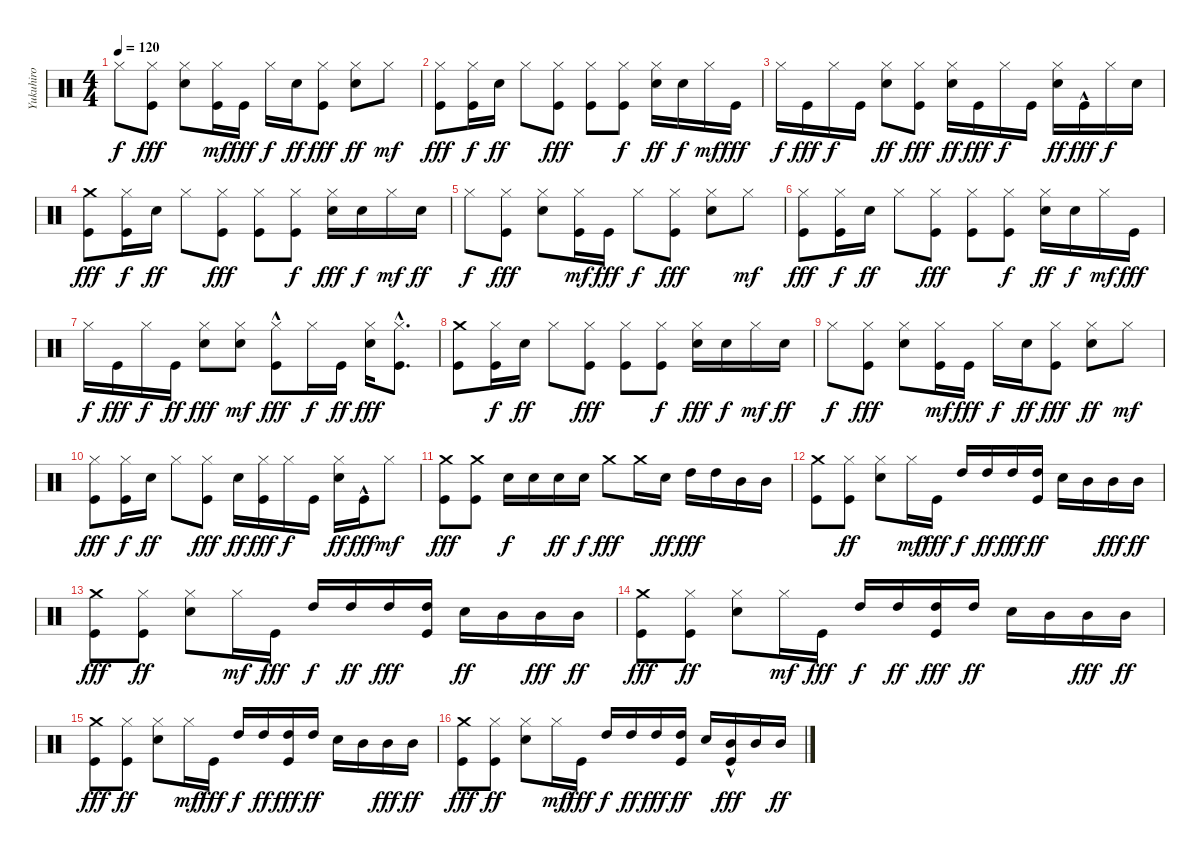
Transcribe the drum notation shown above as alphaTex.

\track ("Yukuhiro" "Yukuhiro") {instrument percussion}
\staff {score}
\articulation defaults
\ts (4 4)
\tempo 120
\clef neutral
\ks c "Hi-Hat (closed)".8{dy f}
("Hi-Hat (closed)" "Kick (hit)").8{dy fff} ("Electric Snare (hit)" "Hi-Hat (closed)").8 ("Kick (hit)" "Hi-Hat (closed)").16{dy mf} "Kick (hit)".16{dy fff} "Hi-Hat (closed)".16{dy f} "Electric Snare (hit)".16{dy ff} ("Hi-Hat (closed)" "Kick (hit)").8{dy fff} ("Hi-Hat (closed)" "Electric Snare (hit)").8{dy ff} "Hi-Hat (closed)".8{dy mf} |
("Hi-Hat (closed)" "Kick (hit)").8{dy fff} ("Kick (hit)" "Hi-Hat (closed)").16{dy f} "Electric Snare (hit)".16{dy ff} "Hi-Hat (closed)".8 ("Hi-Hat (closed)" "Kick (hit)").8{dy fff} ("Kick (hit)" "Hi-Hat (closed)").8 ("Hi-Hat (closed)" "Kick (hit)").8{dy f} ("Hi-Hat (closed)" "Electric Snare (hit)").16{dy ff} "Electric Snare (hit)".16{dy f} "Hi-Hat (closed)".16{dy mf} "Kick (hit)".16{dy fff} |
"Hi-Hat (closed)".16{dy f} "Kick (hit)".16{dy fff} "Hi-Hat (closed)".16{dy f} "Kick (hit)".16 ("Electric Snare (hit)" "Hi-Hat (closed)").8{dy ff} ("Kick (hit)" "Hi-Hat (closed)").8{dy fff} ("Hi-Hat (closed)" "Electric Snare (hit)").16{dy ff} "Kick (hit)".16{dy fff} "Hi-Hat (closed)".16{dy f} "Kick (hit)".16 ("Hi-Hat (closed)" "Electric Snare (hit)").16{dy ff} "Kick (hit)"{hac}.16{dy fff} "Hi-Hat (closed)".16{dy f} "Electric Snare (hit)".16 |
("Crash medium (hit)" "Kick (hit)").8{dy fff} ("Kick (hit)" "Hi-Hat (closed)").16{dy f} "Electric Snare (hit)".16{dy ff} "Hi-Hat (closed)".8 ("Kick (hit)" "Hi-Hat (closed)").8{dy fff} ("Hi-Hat (closed)" "Kick (hit)").8 ("Hi-Hat (closed)" "Kick (hit)").8{dy f} ("Electric Snare (hit)" "Hi-Hat (closed)").16{dy fff} "Electric Snare (hit)".16{dy f} "Hi-Hat (closed)".16{dy mf} "Electric Snare (hit)".16{dy ff} |
"Hi-Hat (closed)".8{dy f} ("Kick (hit)" "Hi-Hat (closed)").8{dy fff} ("Electric Snare (hit)" "Hi-Hat (closed)").8 ("Kick (hit)" "Hi-Hat (closed)").16{dy mf} "Kick (hit)".16{dy fff} "Hi-Hat (closed)".8{dy f} ("Hi-Hat (closed)" "Kick (hit)").8{dy fff} ("Electric Snare (hit)" "Hi-Hat (closed)").8 "Hi-Hat (closed)".8{dy mf} |
("Hi-Hat (closed)" "Kick (hit)").8{dy fff} ("Kick (hit)" "Hi-Hat (closed)").16{dy f} "Electric Snare (hit)".16{dy ff} "Hi-Hat (closed)".8 ("Hi-Hat (closed)" "Kick (hit)").8{dy fff} ("Kick (hit)" "Hi-Hat (closed)").8 ("Hi-Hat (closed)" "Kick (hit)").8{dy f} ("Hi-Hat (closed)" "Electric Snare (hit)").16{dy ff} "Electric Snare (hit)".16{dy f} "Hi-Hat (closed)".16{dy mf} "Kick (hit)".16{dy fff} |
"Hi-Hat (closed)".16{dy f} "Kick (hit)".16{dy fff} "Hi-Hat (closed)".16{dy f} "Kick (hit)".16{dy ff} ("Electric Snare (hit)" "Hi-Hat (closed)").8{dy fff} ("Electric Snare (hit)" "Hi-Hat (closed)").8{dy mf} ("Hi-Hat (closed)" "Kick (hit)"{hac}).8{dy fff} "Hi-Hat (closed)".16{dy f} "Kick (hit)".16{dy ff} ("Electric Snare (hit)" "Hi-Hat (closed)").16{dy fff} ("Hi-Hat (closed)"{hac} "Kick (hit)"{hac}).8{d} |
("Crash medium (hit)" "Kick (hit)").8 ("Hi-Hat (closed)" "Kick (hit)").16{dy f} "Electric Snare (hit)".16{dy ff} "Hi-Hat (closed)".8 ("Kick (hit)" "Hi-Hat (closed)").8{dy fff} ("Kick (hit)" "Hi-Hat (closed)").8 ("Hi-Hat (closed)" "Kick (hit)").8{dy f} ("Electric Snare (hit)" "Hi-Hat (closed)").16{dy fff} "Electric Snare (hit)".16{dy f} "Hi-Hat (closed)".16{dy mf} "Electric Snare (hit)".16{dy ff} |
"Hi-Hat (closed)".8{dy f} ("Hi-Hat (closed)" "Kick (hit)").8{dy fff} ("Electric Snare (hit)" "Hi-Hat (closed)").8 ("Kick (hit)" "Hi-Hat (closed)").16{dy mf} "Kick (hit)".16{dy fff} "Hi-Hat (closed)".16{dy f} "Electric Snare (hit)".16{dy ff} ("Hi-Hat (closed)" "Kick (hit)").8{dy fff} ("Hi-Hat (closed)" "Electric Snare (hit)").8{dy ff} "Hi-Hat (closed)".8{dy mf} |
("Hi-Hat (closed)" "Kick (hit)").8{dy fff} ("Kick (hit)" "Hi-Hat (closed)").16{dy f} "Electric Snare (hit)".16{dy ff} "Hi-Hat (closed)".8 ("Kick (hit)" "Hi-Hat (closed)").8{dy fff} "Electric Snare (hit)".16{dy ff} ("Hi-Hat (closed)" "Kick (hit)").16{dy fff} "Hi-Hat (closed)".16{dy f} "Kick (hit)".16 ("Hi-Hat (closed)" "Electric Snare (hit)").16{dy ff} "Kick (hit)"{hac}.16{dy fff} "Hi-Hat (closed)".8{dy mf} |
("Crash medium (hit)" "Kick (hit)").8{dy fff} ("Crash medium (hit)" "Kick (hit)").8 "Electric Snare (hit)".16{dy f} "Electric Snare (hit)".16 "Electric Snare (hit)".16{dy ff} "Electric Snare (hit)".16{dy f} "Crash medium (hit)".8{dy fff} "Crash medium (hit)".16 "Electric Snare (hit)".16{dy ff} "High Tom (hit)".16{dy fff} "High Tom (hit)".16 "Mid Tom (hit)".16 "Mid Tom (hit)".16 |
("Crash medium (hit)" "Kick (hit)").8 ("Kick (hit)" "Hi-Hat (closed)").8{dy ff} ("Electric Snare (hit)" "Hi-Hat (closed)").8 "Hi-Hat (closed)".16{dy mf} "Kick (hit)".16{dy fff} "High Tom (hit)".16{dy f} "High Tom (hit)".16{dy ff} "High Tom (hit)".16{dy fff} ("Kick (hit)" "High Tom (hit)").16{dy ff} "Electric Snare (hit)".16 "Mid Tom (hit)".16 "Mid Tom (hit)".16{dy fff} "Mid Tom (hit)".16{dy ff} |
("Crash medium (hit)" "Kick (hit)").8{dy fff} ("Kick (hit)" "Hi-Hat (closed)").8{dy ff} ("Electric Snare (hit)" "Hi-Hat (closed)").8 "Hi-Hat (closed)".16{dy mf} "Kick (hit)".16{dy fff} "High Tom (hit)".16{dy f} "High Tom (hit)".16{dy ff} "High Tom (hit)".16{dy fff} ("High Tom (hit)" "Kick (hit)").16 "Electric Snare (hit)".16{dy ff} "Mid Tom (hit)".16 "Mid Tom (hit)".16{dy fff} "Mid Tom (hit)".16{dy ff} |
("Crash medium (hit)" "Kick (hit)").8{dy fff} ("Kick (hit)" "Hi-Hat (closed)").8{dy ff} ("Electric Snare (hit)" "Hi-Hat (closed)").8 "Hi-Hat (closed)".16{dy mf} "Kick (hit)".16{dy fff} "High Tom (hit)".16{dy f} "High Tom (hit)".16{dy ff} ("Kick (hit)" "High Tom (hit)").16{dy fff} "High Tom (hit)".16{dy ff} "Electric Snare (hit)".16 "Mid Tom (hit)".16 "Mid Tom (hit)".16{dy fff} "Mid Tom (hit)".16{dy ff} |
("Crash medium (hit)" "Kick (hit)").8{dy fff} ("Kick (hit)" "Hi-Hat (closed)").8{dy ff} ("Electric Snare (hit)" "Hi-Hat (closed)").8 "Hi-Hat (closed)".16{dy mf} "Kick (hit)".16{dy fff} "High Tom (hit)".16{dy f} "High Tom (hit)".16{dy ff} ("Kick (hit)" "High Tom (hit)").16{dy fff} "High Tom (hit)".16{dy ff} "Electric Snare (hit)".16 "Mid Tom (hit)".16 "Mid Tom (hit)".16{dy fff} "Mid Tom (hit)".16{dy ff} |
("Crash medium (hit)" "Kick (hit)").8{dy fff} ("Hi-Hat (closed)" "Kick (hit)").8{dy ff} ("Electric Snare (hit)" "Hi-Hat (closed)").8 "Hi-Hat (closed)".16{dy mf} "Kick (hit)".16{dy fff} "High Tom (hit)".16{dy f} "High Tom (hit)".16{dy ff} "High Tom (hit)".16{dy fff} ("High Tom (hit)" "Kick (hit)").16{dy ff} "Electric Snare (hit)".16 ("Mid Tom (hit)" "Kick (hit)"{hac}).16{dy fff} "Mid Tom (hit)".16 "Mid Tom (hit)".16{dy ff}
